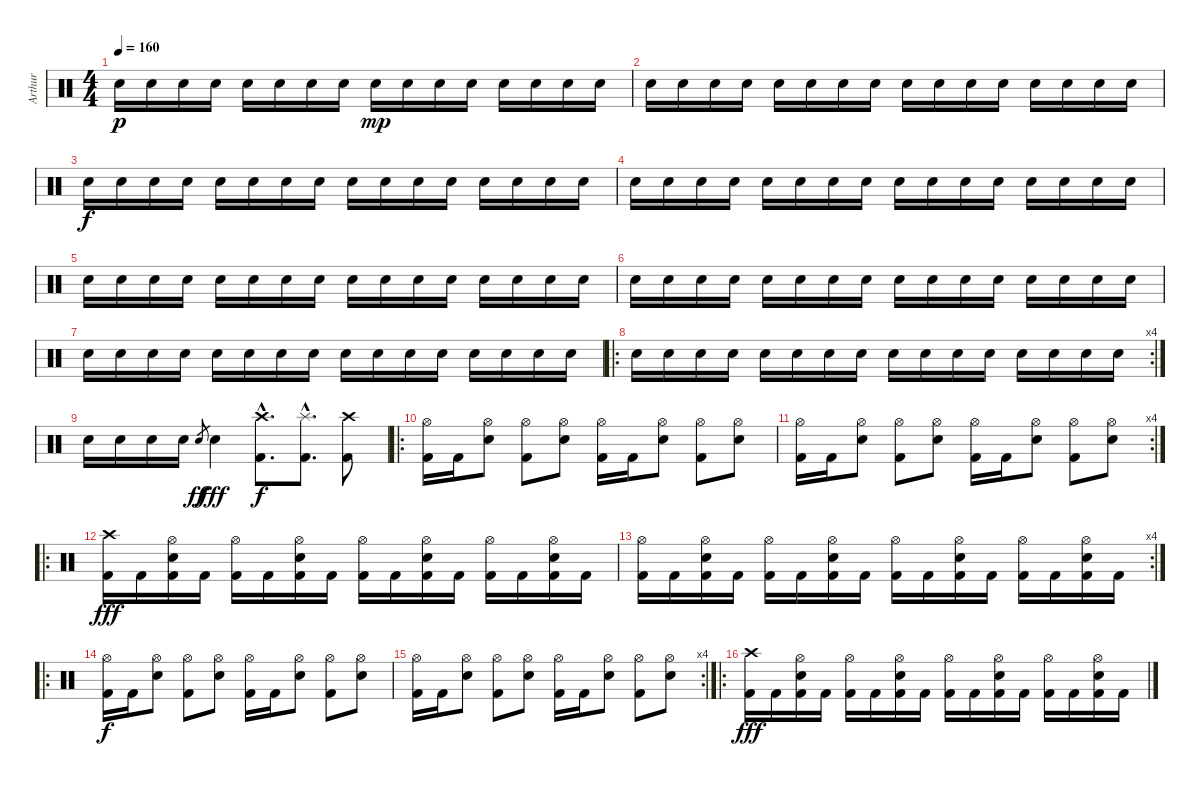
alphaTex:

\track ("Arthur" "Arthur") {instrument percussion}
\staff {score}
\articulation defaults
\ts (4 4)
\tempo 160
\clef neutral
\ks c "Electric Snare (hit)".16{dy p volume 1} "Electric Snare (hit)".16 "Electric Snare (hit)".16 "Electric Snare (hit)".16 "Electric Snare (hit)".16 "Electric Snare (hit)".16 "Electric Snare (hit)".16 "Electric Snare (hit)".16 "Electric Snare (hit)".16{dy mp volume 2} "Electric Snare (hit)".16 "Electric Snare (hit)".16 "Electric Snare (hit)".16 "Electric Snare (hit)".16 "Electric Snare (hit)".16 "Electric Snare (hit)".16 "Electric Snare (hit)".16
|
"Electric Snare (hit)".16{volume 4} "Electric Snare (hit)".16 "Electric Snare (hit)".16 "Electric Snare (hit)".16 "Electric Snare (hit)".16 "Electric Snare (hit)".16 "Electric Snare (hit)".16 "Electric Snare (hit)".16 "Electric Snare (hit)".16{volume 4} "Electric Snare (hit)".16 "Electric Snare (hit)".16 "Electric Snare (hit)".16 "Electric Snare (hit)".16 "Electric Snare (hit)".16 "Electric Snare (hit)".16 "Electric Snare (hit)".16 |
"Electric Snare (hit)".16{dy f volume 5} "Electric Snare (hit)".16 "Electric Snare (hit)".16 "Electric Snare (hit)".16 "Electric Snare (hit)".16 "Electric Snare (hit)".16 "Electric Snare (hit)".16 "Electric Snare (hit)".16 "Electric Snare (hit)".16{volume 6} "Electric Snare (hit)".16 "Electric Snare (hit)".16 "Electric Snare (hit)".16 "Electric Snare (hit)".16 "Electric Snare (hit)".16 "Electric Snare (hit)".16 "Electric Snare (hit)".16 |
"Electric Snare (hit)".16{volume 7} "Electric Snare (hit)".16 "Electric Snare (hit)".16 "Electric Snare (hit)".16 "Electric Snare (hit)".16 "Electric Snare (hit)".16 "Electric Snare (hit)".16 "Electric Snare (hit)".16 "Electric Snare (hit)".16 "Electric Snare (hit)".16 "Electric Snare (hit)".16 "Electric Snare (hit)".16 "Electric Snare (hit)".16 "Electric Snare (hit)".16 "Electric Snare (hit)".16 "Electric Snare (hit)".16 |
"Electric Snare (hit)".16 "Electric Snare (hit)".16 "Electric Snare (hit)".16 "Electric Snare (hit)".16 "Electric Snare (hit)".16 "Electric Snare (hit)".16 "Electric Snare (hit)".16 "Electric Snare (hit)".16 "Electric Snare (hit)".16 "Electric Snare (hit)".16 "Electric Snare (hit)".16 "Electric Snare (hit)".16 "Electric Snare (hit)".16 "Electric Snare (hit)".16 "Electric Snare (hit)".16 "Electric Snare (hit)".16 |
"Electric Snare (hit)".16 "Electric Snare (hit)".16 "Electric Snare (hit)".16 "Electric Snare (hit)".16 "Electric Snare (hit)".16 "Electric Snare (hit)".16 "Electric Snare (hit)".16 "Electric Snare (hit)".16 "Electric Snare (hit)".16{volume 10} "Electric Snare (hit)".16 "Electric Snare (hit)".16 "Electric Snare (hit)".16 "Electric Snare (hit)".16 "Electric Snare (hit)".16 "Electric Snare (hit)".16 "Electric Snare (hit)".16 |
"Electric Snare (hit)".16 "Electric Snare (hit)".16 "Electric Snare (hit)".16 "Electric Snare (hit)".16 "Electric Snare (hit)".16 "Electric Snare (hit)".16 "Electric Snare (hit)".16 "Electric Snare (hit)".16 "Electric Snare (hit)".16{volume 11} "Electric Snare (hit)".16 "Electric Snare (hit)".16 "Electric Snare (hit)".16 "Electric Snare (hit)".16 "Electric Snare (hit)".16 "Electric Snare (hit)".16 "Electric Snare (hit)".16 |
\ro
\rc 4 "Electric Snare (hit)".16{volume 13} "Electric Snare (hit)".16 "Electric Snare (hit)".16 "Electric Snare (hit)".16 "Electric Snare (hit)".16 "Electric Snare (hit)".16 "Electric Snare (hit)".16 "Electric Snare (hit)".16 "Electric Snare (hit)".16 "Electric Snare (hit)".16 "Electric Snare (hit)".16 "Electric Snare (hit)".16 "Electric Snare (hit)".16 "Electric Snare (hit)".16 "Electric Snare (hit)".16 "Electric Snare (hit)".16
|
"Electric Snare (hit)".16 "Electric Snare (hit)".16 "Electric Snare (hit)".16 "Electric Snare (hit)".16 "Electric Snare (hit)".8{gr dy ff} "Electric Snare (hit)".4{dy fff} ("Crash high (hit)"{hac} "Kick (hit) 2"{hac}).8{d dy f} ("Splash (hit)"{hac} "Kick (hit) 2"{hac}).8{d} ("Crash high (hit)" "Kick (hit) 2").8 |
\ro
("Hi-Hat (open)" "Kick (hit) 2").16 "Kick (hit) 2".16 ("Hi-Hat (open)" "Electric Snare (hit)").8 ("Hi-Hat (open)" "Kick (hit) 2").8 ("Hi-Hat (open)" "Electric Snare (hit)").8 ("Hi-Hat (open)" "Kick (hit) 2").16 "Kick (hit) 2".16 ("Hi-Hat (open)" "Electric Snare (hit)").8 ("Hi-Hat (open)" "Kick (hit) 2").8 ("Hi-Hat (open)" "Electric Snare (hit)").8 |
\rc 4
("Hi-Hat (open)" "Kick (hit) 2").16 "Kick (hit) 2".16 ("Hi-Hat (open)" "Electric Snare (hit)").8 ("Hi-Hat (open)" "Kick (hit) 2").8 ("Hi-Hat (open)" "Electric Snare (hit)").8 ("Hi-Hat (open)" "Kick (hit) 2").16 "Kick (hit) 2".16 ("Hi-Hat (open)" "Electric Snare (hit)").8 ("Hi-Hat (open)" "Kick (hit) 2").8 ("Hi-Hat (open)" "Electric Snare (hit)").8 |
\ro
("Crash high (hit)" "Kick (hit) 2").16{dy fff} "Kick (hit) 2".16 ("Hi-Hat (open)" "Electric Snare (hit)" "Kick (hit) 2").16 "Kick (hit) 2".16 ("Hi-Hat (open)" "Kick (hit) 2").16 "Kick (hit) 2".16 ("Hi-Hat (open)" "Electric Snare (hit)" "Kick (hit) 2").16 "Kick (hit) 2".16 ("Hi-Hat (open)" "Kick (hit) 2").16 "Kick (hit) 2".16 ("Hi-Hat (open)" "Electric Snare (hit)" "Kick (hit) 2").16 "Kick (hit) 2".16 ("Hi-Hat (open)" "Kick (hit) 2").16 "Kick (hit) 2".16 ("Hi-Hat (open)" "Electric Snare (hit)" "Kick (hit) 2").16 "Kick (hit) 2".16 |
\rc 4
("Hi-Hat (open)" "Kick (hit) 2").16 "Kick (hit) 2".16 ("Hi-Hat (open)" "Electric Snare (hit)" "Kick (hit) 2").16 "Kick (hit) 2".16 ("Hi-Hat (open)" "Kick (hit) 2").16 "Kick (hit) 2".16 ("Hi-Hat (open)" "Electric Snare (hit)" "Kick (hit) 2").16 "Kick (hit) 2".16 ("Hi-Hat (open)" "Kick (hit) 2").16 "Kick (hit) 2".16 ("Hi-Hat (open)" "Electric Snare (hit)" "Kick (hit) 2").16 "Kick (hit) 2".16 ("Hi-Hat (open)" "Kick (hit) 2").16 "Kick (hit) 2".16 ("Hi-Hat (open)" "Electric Snare (hit)" "Kick (hit) 2").16 "Kick (hit) 2".16 |
\ro
("Hi-Hat (open)" "Kick (hit) 2").16{dy f} "Kick (hit) 2".16 ("Hi-Hat (open)" "Electric Snare (hit)").8 ("Hi-Hat (open)" "Kick (hit) 2").8 ("Hi-Hat (open)" "Electric Snare (hit)").8 ("Hi-Hat (open)" "Kick (hit) 2").16 "Kick (hit) 2".16 ("Hi-Hat (open)" "Electric Snare (hit)").8 ("Hi-Hat (open)" "Kick (hit) 2").8 ("Hi-Hat (open)" "Electric Snare (hit)").8 |
\rc 4
("Hi-Hat (open)" "Kick (hit) 2").16 "Kick (hit) 2".16 ("Hi-Hat (open)" "Electric Snare (hit)").8 ("Hi-Hat (open)" "Kick (hit) 2").8 ("Hi-Hat (open)" "Electric Snare (hit)").8 ("Hi-Hat (open)" "Kick (hit) 2").16 "Kick (hit) 2".16 ("Hi-Hat (open)" "Electric Snare (hit)").8 ("Hi-Hat (open)" "Kick (hit) 2").8 ("Hi-Hat (open)" "Electric Snare (hit)").8 |
\ro
("Crash high (hit)" "Kick (hit) 2").16{dy fff} "Kick (hit) 2".16 ("Hi-Hat (open)" "Electric Snare (hit)" "Kick (hit) 2").16 "Kick (hit) 2".16 ("Hi-Hat (open)" "Kick (hit) 2").16 "Kick (hit) 2".16 ("Hi-Hat (open)" "Electric Snare (hit)" "Kick (hit) 2").16 "Kick (hit) 2".16 ("Hi-Hat (open)" "Kick (hit) 2").16 "Kick (hit) 2".16 ("Hi-Hat (open)" "Electric Snare (hit)" "Kick (hit) 2").16 "Kick (hit) 2".16 ("Hi-Hat (open)" "Kick (hit) 2").16 "Kick (hit) 2".16 ("Hi-Hat (open)" "Electric Snare (hit)" "Kick (hit) 2").16 "Kick (hit) 2".16
